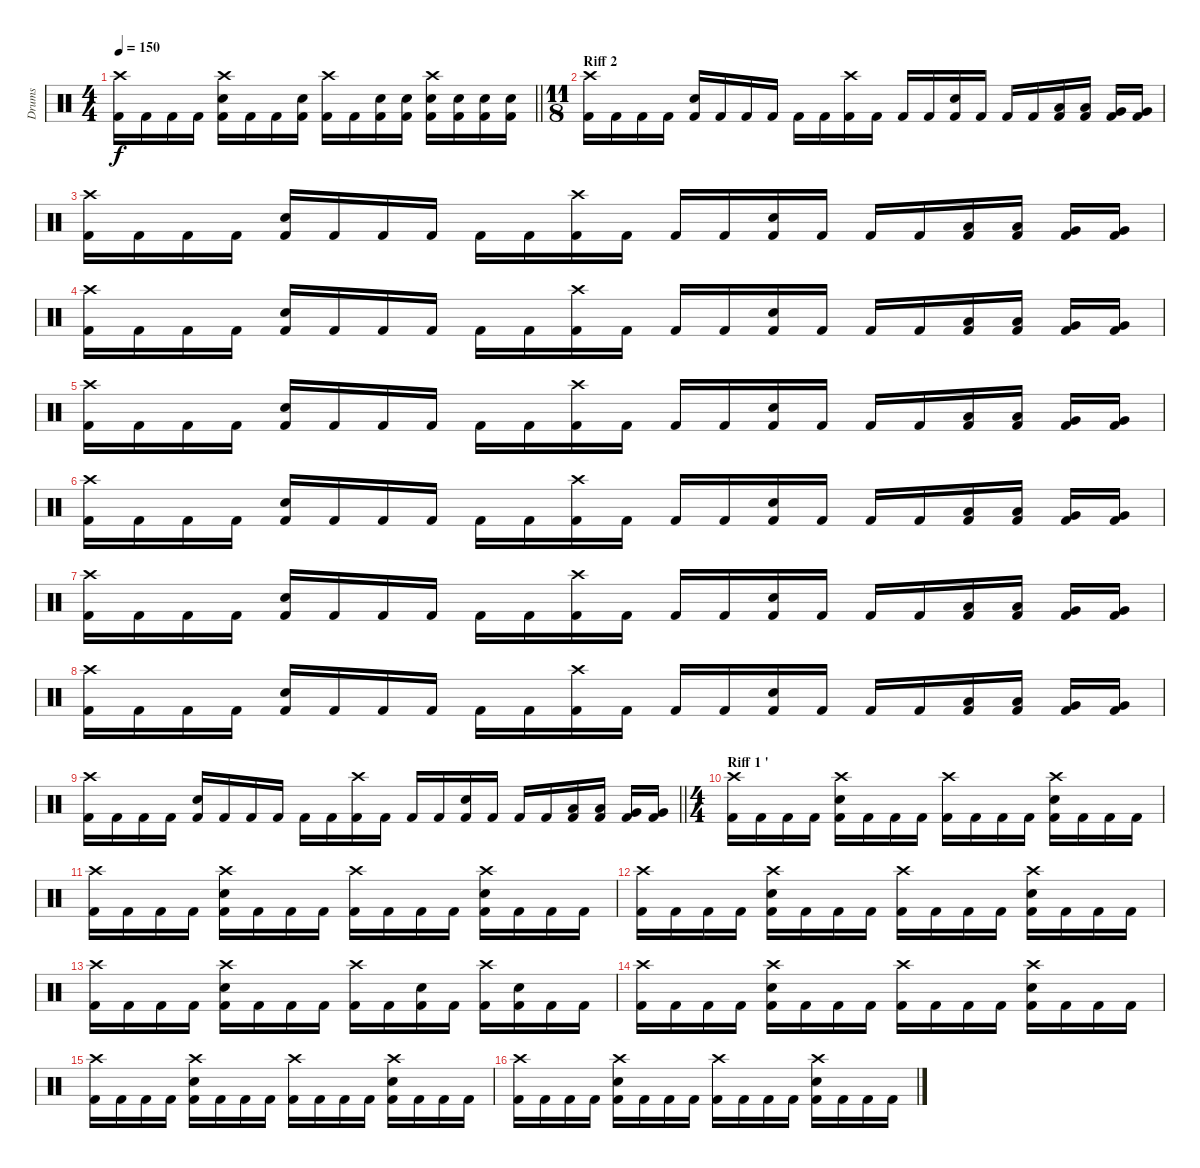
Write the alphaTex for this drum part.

\track ("Drums" "Drums") {instrument percussion}
\staff {score}
\articulation defaults
\ts (4 4)
\tempo 150
\clef neutral
\barLineRight lightlight
\ks c
("Crash high (hit)" "Kick (hit) 2").16{dy f} "Kick (hit) 2".16 "Kick (hit) 2".16 "Kick (hit) 2".16 ("Crash high (hit)" "Snare (hit) 2" "Kick (hit) 2").16 "Kick (hit) 2".16 "Kick (hit) 2".16 ("Snare (hit) 2" "Kick (hit) 2").16 ("Crash high (hit)" "Kick (hit) 2").16 "Kick (hit) 2".16 ("Snare (hit) 2" "Kick (hit) 2").16 ("Snare (hit) 2" "Kick (hit) 2").16 ("Crash high (hit)" "Snare (hit) 2" "Kick (hit) 2").16 ("Snare (hit) 2" "Kick (hit) 2").16 ("Snare (hit) 2" "Kick (hit) 2").16 ("Snare (hit) 2" "Kick (hit) 2").16 |
\ts (11 8)
\section ("" "Riff 2")
("Crash high (hit)" "Kick (hit) 2").16 "Kick (hit) 2".16 "Kick (hit) 2".16 "Kick (hit) 2".16 ("Snare (hit) 2" "Kick (hit) 2").16 "Kick (hit) 2".16 "Kick (hit) 2".16 "Kick (hit) 2".16 "Kick (hit) 2".16 "Kick (hit) 2".16 ("Crash high (hit)" "Kick (hit) 2").16 "Kick (hit) 2".16 "Kick (hit) 2".16 "Kick (hit) 2".16 ("Snare (hit) 2" "Kick (hit) 2").16 "Kick (hit) 2".16 "Kick (hit) 2".16 "Kick (hit) 2".16 ("Low Tom (hit)" "Kick (hit) 2").16 ("Low Tom (hit)" "Kick (hit) 2").16 ("Very Low Tom (hit)" "Kick (hit) 2").16 ("Very Low Tom (hit)" "Kick (hit) 2").16 |
("Crash high (hit)" "Kick (hit) 2").16 "Kick (hit) 2".16 "Kick (hit) 2".16 "Kick (hit) 2".16 ("Snare (hit) 2" "Kick (hit) 2").16 "Kick (hit) 2".16 "Kick (hit) 2".16 "Kick (hit) 2".16 "Kick (hit) 2".16 "Kick (hit) 2".16 ("Crash high (hit)" "Kick (hit) 2").16 "Kick (hit) 2".16 "Kick (hit) 2".16 "Kick (hit) 2".16 ("Snare (hit) 2" "Kick (hit) 2").16 "Kick (hit) 2".16 "Kick (hit) 2".16 "Kick (hit) 2".16 ("Low Tom (hit)" "Kick (hit) 2").16 ("Low Tom (hit)" "Kick (hit) 2").16 ("Very Low Tom (hit)" "Kick (hit) 2").16 ("Very Low Tom (hit)" "Kick (hit) 2").16 |
("Crash high (hit)" "Kick (hit) 2").16 "Kick (hit) 2".16 "Kick (hit) 2".16 "Kick (hit) 2".16 ("Snare (hit) 2" "Kick (hit) 2").16 "Kick (hit) 2".16 "Kick (hit) 2".16 "Kick (hit) 2".16 "Kick (hit) 2".16 "Kick (hit) 2".16 ("Crash high (hit)" "Kick (hit) 2").16 "Kick (hit) 2".16 "Kick (hit) 2".16 "Kick (hit) 2".16 ("Snare (hit) 2" "Kick (hit) 2").16 "Kick (hit) 2".16 "Kick (hit) 2".16 "Kick (hit) 2".16 ("Low Tom (hit)" "Kick (hit) 2").16 ("Low Tom (hit)" "Kick (hit) 2").16 ("Very Low Tom (hit)" "Kick (hit) 2").16 ("Very Low Tom (hit)" "Kick (hit) 2").16 |
("Crash high (hit)" "Kick (hit) 2").16 "Kick (hit) 2".16 "Kick (hit) 2".16 "Kick (hit) 2".16 ("Snare (hit) 2" "Kick (hit) 2").16 "Kick (hit) 2".16 "Kick (hit) 2".16 "Kick (hit) 2".16 "Kick (hit) 2".16 "Kick (hit) 2".16 ("Crash high (hit)" "Kick (hit) 2").16 "Kick (hit) 2".16 "Kick (hit) 2".16 "Kick (hit) 2".16 ("Snare (hit) 2" "Kick (hit) 2").16 "Kick (hit) 2".16 "Kick (hit) 2".16 "Kick (hit) 2".16 ("Low Tom (hit)" "Kick (hit) 2").16 ("Low Tom (hit)" "Kick (hit) 2").16 ("Very Low Tom (hit)" "Kick (hit) 2").16 ("Very Low Tom (hit)" "Kick (hit) 2").16 |
("Crash high (hit)" "Kick (hit) 2").16 "Kick (hit) 2".16 "Kick (hit) 2".16 "Kick (hit) 2".16 ("Snare (hit) 2" "Kick (hit) 2").16 "Kick (hit) 2".16 "Kick (hit) 2".16 "Kick (hit) 2".16 "Kick (hit) 2".16 "Kick (hit) 2".16 ("Crash high (hit)" "Kick (hit) 2").16 "Kick (hit) 2".16 "Kick (hit) 2".16 "Kick (hit) 2".16 ("Snare (hit) 2" "Kick (hit) 2").16 "Kick (hit) 2".16 "Kick (hit) 2".16 "Kick (hit) 2".16 ("Low Tom (hit)" "Kick (hit) 2").16 ("Low Tom (hit)" "Kick (hit) 2").16 ("Very Low Tom (hit)" "Kick (hit) 2").16 ("Very Low Tom (hit)" "Kick (hit) 2").16 |
("Crash high (hit)" "Kick (hit) 2").16 "Kick (hit) 2".16 "Kick (hit) 2".16 "Kick (hit) 2".16 ("Snare (hit) 2" "Kick (hit) 2").16 "Kick (hit) 2".16 "Kick (hit) 2".16 "Kick (hit) 2".16 "Kick (hit) 2".16 "Kick (hit) 2".16 ("Crash high (hit)" "Kick (hit) 2").16 "Kick (hit) 2".16 "Kick (hit) 2".16 "Kick (hit) 2".16 ("Snare (hit) 2" "Kick (hit) 2").16 "Kick (hit) 2".16 "Kick (hit) 2".16 "Kick (hit) 2".16 ("Low Tom (hit)" "Kick (hit) 2").16 ("Low Tom (hit)" "Kick (hit) 2").16 ("Very Low Tom (hit)" "Kick (hit) 2").16 ("Very Low Tom (hit)" "Kick (hit) 2").16 |
("Crash high (hit)" "Kick (hit) 2").16 "Kick (hit) 2".16 "Kick (hit) 2".16 "Kick (hit) 2".16 ("Snare (hit) 2" "Kick (hit) 2").16 "Kick (hit) 2".16 "Kick (hit) 2".16 "Kick (hit) 2".16 "Kick (hit) 2".16 "Kick (hit) 2".16 ("Crash high (hit)" "Kick (hit) 2").16 "Kick (hit) 2".16 "Kick (hit) 2".16 "Kick (hit) 2".16 ("Snare (hit) 2" "Kick (hit) 2").16 "Kick (hit) 2".16 "Kick (hit) 2".16 "Kick (hit) 2".16 ("Low Tom (hit)" "Kick (hit) 2").16 ("Low Tom (hit)" "Kick (hit) 2").16 ("Very Low Tom (hit)" "Kick (hit) 2").16 ("Very Low Tom (hit)" "Kick (hit) 2").16 |
\barLineRight lightlight
("Crash high (hit)" "Kick (hit) 2").16 "Kick (hit) 2".16 "Kick (hit) 2".16 "Kick (hit) 2".16 ("Snare (hit) 2" "Kick (hit) 2").16 "Kick (hit) 2".16 "Kick (hit) 2".16 "Kick (hit) 2".16 "Kick (hit) 2".16 "Kick (hit) 2".16 ("Crash high (hit)" "Kick (hit) 2").16 "Kick (hit) 2".16 "Kick (hit) 2".16 "Kick (hit) 2".16 ("Snare (hit) 2" "Kick (hit) 2").16 "Kick (hit) 2".16 "Kick (hit) 2".16 "Kick (hit) 2".16 ("Low Tom (hit)" "Kick (hit) 2").16 ("Low Tom (hit)" "Kick (hit) 2").16 ("Very Low Tom (hit)" "Kick (hit) 2").16 ("Very Low Tom (hit)" "Kick (hit) 2").16 |
\ts (4 4)
\section ("" "Riff 1 '")
("Crash high (hit)" "Kick (hit) 2").16 "Kick (hit) 2".16 "Kick (hit) 2".16 "Kick (hit) 2".16 ("Crash high (hit)" "Snare (hit) 2" "Kick (hit) 2").16 "Kick (hit) 2".16 "Kick (hit) 2".16 "Kick (hit) 2".16 ("Crash high (hit)" "Kick (hit) 2").16 "Kick (hit) 2".16 "Kick (hit) 2".16 "Kick (hit) 2".16 ("Crash high (hit)" "Snare (hit) 2" "Kick (hit) 2").16 "Kick (hit) 2".16 "Kick (hit) 2".16 "Kick (hit) 2".16 |
("Crash high (hit)" "Kick (hit) 2").16 "Kick (hit) 2".16 "Kick (hit) 2".16 "Kick (hit) 2".16 ("Crash high (hit)" "Snare (hit) 2" "Kick (hit) 2").16 "Kick (hit) 2".16 "Kick (hit) 2".16 "Kick (hit) 2".16 ("Crash high (hit)" "Kick (hit) 2").16 "Kick (hit) 2".16 "Kick (hit) 2".16 "Kick (hit) 2".16 ("Crash high (hit)" "Snare (hit) 2" "Kick (hit) 2").16 "Kick (hit) 2".16 "Kick (hit) 2".16 "Kick (hit) 2".16 |
("Crash high (hit)" "Kick (hit) 2").16 "Kick (hit) 2".16 "Kick (hit) 2".16 "Kick (hit) 2".16 ("Crash high (hit)" "Snare (hit) 2" "Kick (hit) 2").16 "Kick (hit) 2".16 "Kick (hit) 2".16 "Kick (hit) 2".16 ("Crash high (hit)" "Kick (hit) 2").16 "Kick (hit) 2".16 "Kick (hit) 2".16 "Kick (hit) 2".16 ("Crash high (hit)" "Snare (hit) 2" "Kick (hit) 2").16 "Kick (hit) 2".16 "Kick (hit) 2".16 "Kick (hit) 2".16 |
("Crash high (hit)" "Kick (hit) 2").16 "Kick (hit) 2".16 "Kick (hit) 2".16 "Kick (hit) 2".16 ("Crash high (hit)" "Snare (hit) 2" "Kick (hit) 2").16 "Kick (hit) 2".16 "Kick (hit) 2".16 "Kick (hit) 2".16 ("Crash high (hit)" "Kick (hit) 2").16 "Kick (hit) 2".16 ("Snare (hit) 2" "Kick (hit) 2").16 "Kick (hit) 2".16 ("Crash high (hit)" "Kick (hit) 2").16 ("Snare (hit) 2" "Kick (hit) 2").16 "Kick (hit) 2".16 "Kick (hit) 2".16 |
("Crash high (hit)" "Kick (hit) 2").16 "Kick (hit) 2".16 "Kick (hit) 2".16 "Kick (hit) 2".16 ("Crash high (hit)" "Snare (hit) 2" "Kick (hit) 2").16 "Kick (hit) 2".16 "Kick (hit) 2".16 "Kick (hit) 2".16 ("Crash high (hit)" "Kick (hit) 2").16 "Kick (hit) 2".16 "Kick (hit) 2".16 "Kick (hit) 2".16 ("Crash high (hit)" "Snare (hit) 2" "Kick (hit) 2").16 "Kick (hit) 2".16 "Kick (hit) 2".16 "Kick (hit) 2".16 |
("Crash high (hit)" "Kick (hit) 2").16 "Kick (hit) 2".16 "Kick (hit) 2".16 "Kick (hit) 2".16 ("Crash high (hit)" "Snare (hit) 2" "Kick (hit) 2").16 "Kick (hit) 2".16 "Kick (hit) 2".16 "Kick (hit) 2".16 ("Crash high (hit)" "Kick (hit) 2").16 "Kick (hit) 2".16 "Kick (hit) 2".16 "Kick (hit) 2".16 ("Crash high (hit)" "Snare (hit) 2" "Kick (hit) 2").16 "Kick (hit) 2".16 "Kick (hit) 2".16 "Kick (hit) 2".16 |
("Crash high (hit)" "Kick (hit) 2").16 "Kick (hit) 2".16 "Kick (hit) 2".16 "Kick (hit) 2".16 ("Crash high (hit)" "Snare (hit) 2" "Kick (hit) 2").16 "Kick (hit) 2".16 "Kick (hit) 2".16 "Kick (hit) 2".16 ("Crash high (hit)" "Kick (hit) 2").16 "Kick (hit) 2".16 "Kick (hit) 2".16 "Kick (hit) 2".16 ("Crash high (hit)" "Snare (hit) 2" "Kick (hit) 2").16 "Kick (hit) 2".16 "Kick (hit) 2".16 "Kick (hit) 2".16
